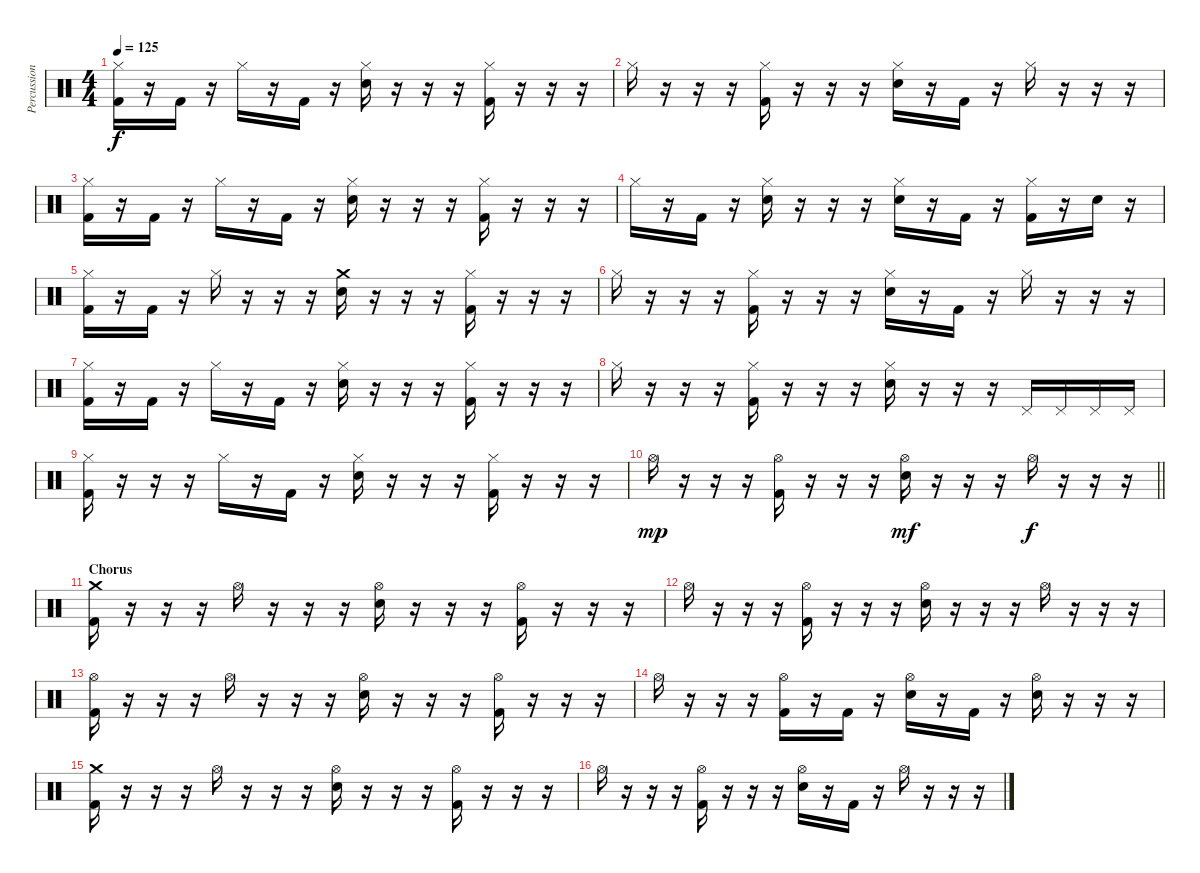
\track ("Percussion" "Percussion") {instrument percussion}
\staff {score}
\articulation defaults
\ts (4 4)
\tempo 125
\clef neutral
\ks c
("Hi-Hat (closed)" "Kick (hit) 2").16{dy f} r.16 "Kick (hit) 2".16 r.16 "Hi-Hat (closed)".16 r.16 "Kick (hit) 2".16 r.16 ("Hi-Hat (closed)" "Electric Snare (hit)").16 r.16 r.16 r.16 ("Hi-Hat (closed)" "Kick (hit) 2").16 r.16 r.16 r.16 |
"Hi-Hat (closed)".16 r.16 r.16 r.16 ("Hi-Hat (closed)" "Kick (hit) 2").16 r.16 r.16 r.16 ("Hi-Hat (closed)" "Electric Snare (hit)").16 r.16 "Kick (hit) 2".16 r.16 "Hi-Hat (closed)".16 r.16 r.16 r.16 |
("Hi-Hat (closed)" "Kick (hit) 2").16 r.16 "Kick (hit) 2".16 r.16 "Hi-Hat (closed)".16 r.16 "Kick (hit) 2".16 r.16 ("Hi-Hat (closed)" "Electric Snare (hit)").16 r.16 r.16 r.16 ("Hi-Hat (closed)" "Kick (hit) 2").16 r.16 r.16 r.16 |
"Hi-Hat (closed)".16 r.16 "Kick (hit) 2".16 r.16 ("Hi-Hat (closed)" "Electric Snare (hit)").16 r.16 r.16 r.16 ("Hi-Hat (closed)" "Electric Snare (hit)").16 r.16 "Kick (hit) 2".16 r.16 ("Hi-Hat (closed)" "Kick (hit) 2").16 r.16 "Electric Snare (hit)".16 r.16 |
("Hi-Hat (closed)" "Kick (hit) 2").16 r.16 "Kick (hit) 2".16 r.16 "Hi-Hat (closed)".16 r.16 r.16 r.16 ("Crash medium (hit)" "Electric Snare (hit)").16 r.16 r.16 r.16 ("Hi-Hat (closed)" "Kick (hit) 2").16 r.16 r.16 r.16 |
"Hi-Hat (closed)".16 r.16 r.16 r.16 ("Hi-Hat (closed)" "Kick (hit) 2").16 r.16 r.16 r.16 ("Hi-Hat (closed)" "Electric Snare (hit)").16 r.16 "Kick (hit) 2".16 r.16 "Hi-Hat (closed)".16 r.16 r.16 r.16 |
("Hi-Hat (closed)" "Kick (hit) 2").16 r.16 "Kick (hit) 2".16 r.16 "Hi-Hat (closed)".16 r.16 "Kick (hit) 2".16 r.16 ("Hi-Hat (closed)" "Electric Snare (hit)").16 r.16 r.16 r.16 ("Hi-Hat (closed)" "Kick (hit) 2").16 r.16 r.16 r.16 |
"Hi-Hat (closed)".16 r.16 r.16 r.16 ("Hi-Hat (closed)" "Kick (hit) 2").16 r.16 r.16 r.16 ("Hi-Hat (closed)" "Electric Snare (hit)").16 r.16 r.16 r.16 "Pedal Hi-Hat (hit)".16 "Pedal Hi-Hat (hit)".16 "Pedal Hi-Hat (hit)".16 "Pedal Hi-Hat (hit)".16 |
("Hi-Hat (closed)" "Kick (hit) 2").16 r.16 r.16 r.16 "Hi-Hat (closed)".16 r.16 "Kick (hit) 2".16 r.16 ("Hi-Hat (closed)" "Electric Snare (hit)").16 r.16 r.16 r.16 ("Hi-Hat (closed)" "Kick (hit) 2").16 r.16 r.16 r.16 |
\barLineRight lightlight "Hi-Hat (open)".16{dy mp}
r.16 r.16 r.16 ("Hi-Hat (open)" "Kick (hit) 2").16 r.16 r.16 r.16 ("Hi-Hat (open)" "Electric Snare (hit)").16{dy mf} r.16 r.16 r.16 "Hi-Hat (open)".16{dy f} r.16 r.16 r.16 |
\section ("" "Chorus")
("Crash medium (hit)" "Kick (hit) 2").16 r.16 r.16 r.16 "Hi-Hat (open)".16 r.16 r.16 r.16 ("Hi-Hat (open)" "Electric Snare (hit)").16 r.16 r.16 r.16 ("Hi-Hat (open)" "Kick (hit) 2").16 r.16 r.16 r.16 |
"Hi-Hat (open)".16 r.16 r.16 r.16 ("Hi-Hat (open)" "Kick (hit) 2").16 r.16 r.16 r.16 ("Hi-Hat (open)" "Electric Snare (hit)").16 r.16 r.16 r.16 "Hi-Hat (open)".16 r.16 r.16 r.16 |
("Hi-Hat (open)" "Kick (hit) 2").16 r.16 r.16 r.16 "Hi-Hat (open)".16 r.16 r.16 r.16 ("Hi-Hat (open)" "Electric Snare (hit)").16 r.16 r.16 r.16 ("Hi-Hat (open)" "Kick (hit) 2").16 r.16 r.16 r.16 |
"Hi-Hat (open)".16 r.16 r.16 r.16 ("Hi-Hat (open)" "Kick (hit) 2").16 r.16 "Kick (hit) 2".16 r.16 ("Hi-Hat (open)" "Electric Snare (hit)").16 r.16 "Kick (hit) 2".16 r.16 ("Hi-Hat (open)" "Electric Snare (hit)").16 r.16 r.16 r.16 |
("Crash medium (hit)" "Kick (hit) 2").16 r.16 r.16 r.16 "Hi-Hat (open)".16 r.16 r.16 r.16 ("Hi-Hat (open)" "Electric Snare (hit)").16 r.16 r.16 r.16 ("Hi-Hat (open)" "Kick (hit) 2").16 r.16 r.16 r.16 |
"Hi-Hat (open)".16 r.16 r.16 r.16 ("Hi-Hat (open)" "Kick (hit) 2").16 r.16 r.16 r.16 ("Hi-Hat (open)" "Electric Snare (hit)").16 r.16 "Kick (hit) 2".16 r.16 "Hi-Hat (open)".16 r.16 r.16 r.16
